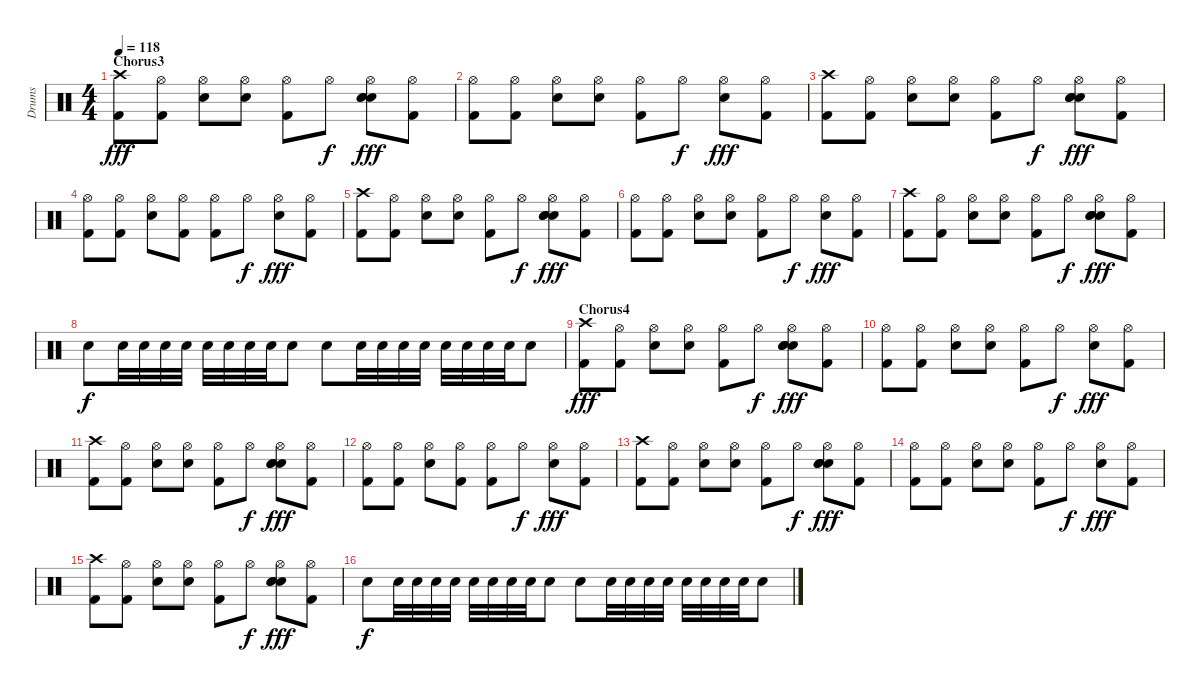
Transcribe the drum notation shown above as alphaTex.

\track ("Drums" "Drums") {instrument percussion}
\staff {score}
\articulation defaults
\ts (4 4)
\section ("" "Chorus3")
\tempo 118
\clef neutral
\ks c
("Crash high (hit)" "Kick (hit) 2").8{dy fff} ("Hi-Hat (open)" "Kick (hit) 2").8 ("Hi-Hat (open)" "Electric Snare (hit)").8 ("Hi-Hat (open)" "Electric Snare (hit)").8 ("Hi-Hat (open)" "Kick (hit) 2").8 "Hi-Hat (open)".8{dy f} ("Hi-Hat (open)" "Electric Snare (hit)" "Hand Clap (hit)" "Hand Clap (hit)").8{dy fff} ("Hi-Hat (open)" "Kick (hit) 2").8 |
("Hi-Hat (open)" "Kick (hit) 2").8 ("Hi-Hat (open)" "Kick (hit) 2").8 ("Hi-Hat (open)" "Electric Snare (hit)").8 ("Hi-Hat (open)" "Electric Snare (hit)").8 ("Hi-Hat (open)" "Kick (hit) 2").8 "Hi-Hat (open)".8{dy f} ("Hi-Hat (open)" "Electric Snare (hit)").8{dy fff} ("Hi-Hat (open)" "Kick (hit) 2").8 |
("Crash high (hit)" "Kick (hit) 2").8 ("Hi-Hat (open)" "Kick (hit) 2").8 ("Hi-Hat (open)" "Electric Snare (hit)").8 ("Hi-Hat (open)" "Electric Snare (hit)").8 ("Hi-Hat (open)" "Kick (hit) 2").8 "Hi-Hat (open)".8{dy f} ("Hi-Hat (open)" "Electric Snare (hit)" "Hand Clap (hit)" "Hand Clap (hit)").8{dy fff} ("Hi-Hat (open)" "Kick (hit) 2").8 |
("Hi-Hat (open)" "Kick (hit) 2").8 ("Hi-Hat (open)" "Kick (hit) 2").8 ("Hi-Hat (open)" "Electric Snare (hit)").8 ("Hi-Hat (open)" "Kick (hit) 2").8 ("Hi-Hat (open)" "Kick (hit) 2").8 "Hi-Hat (open)".8{dy f} ("Hi-Hat (open)" "Electric Snare (hit)").8{dy fff} ("Hi-Hat (open)" "Kick (hit) 2").8 |
("Crash high (hit)" "Kick (hit) 2").8 ("Hi-Hat (open)" "Kick (hit) 2").8 ("Hi-Hat (open)" "Electric Snare (hit)").8 ("Hi-Hat (open)" "Electric Snare (hit)").8 ("Hi-Hat (open)" "Kick (hit) 2").8 "Hi-Hat (open)".8{dy f} ("Hi-Hat (open)" "Electric Snare (hit)" "Hand Clap (hit)" "Hand Clap (hit)").8{dy fff} ("Hi-Hat (open)" "Kick (hit) 2").8 |
("Hi-Hat (open)" "Kick (hit) 2").8 ("Hi-Hat (open)" "Kick (hit) 2").8 ("Hi-Hat (open)" "Electric Snare (hit)").8 ("Hi-Hat (open)" "Electric Snare (hit)").8 ("Hi-Hat (open)" "Kick (hit) 2").8 "Hi-Hat (open)".8{dy f} ("Hi-Hat (open)" "Electric Snare (hit)").8{dy fff} ("Hi-Hat (open)" "Kick (hit) 2").8 |
("Crash high (hit)" "Kick (hit) 2").8 ("Hi-Hat (open)" "Kick (hit) 2").8 ("Hi-Hat (open)" "Electric Snare (hit)").8 ("Hi-Hat (open)" "Electric Snare (hit)").8 ("Hi-Hat (open)" "Kick (hit) 2").8 "Hi-Hat (open)".8{dy f} ("Hi-Hat (open)" "Electric Snare (hit)" "Hand Clap (hit)" "Hand Clap (hit)").8{dy fff} ("Hi-Hat (open)" "Kick (hit) 2").8 |
"Electric Snare (hit)".8{dy f} "Electric Snare (hit)".32 "Electric Snare (hit)".32 "Electric Snare (hit)".32 "Electric Snare (hit)".32 "Electric Snare (hit)".32 "Electric Snare (hit)".32 "Electric Snare (hit)".32 "Electric Snare (hit)".32 "Electric Snare (hit)".8 "Electric Snare (hit)".8 "Electric Snare (hit)".32 "Electric Snare (hit)".32 "Electric Snare (hit)".32 "Electric Snare (hit)".32 "Electric Snare (hit)".32 "Electric Snare (hit)".32 "Electric Snare (hit)".32 "Electric Snare (hit)".32 "Electric Snare (hit)".8 |
\section ("" "Chorus4")
("Crash high (hit)" "Kick (hit) 2").8{dy fff} ("Hi-Hat (open)" "Kick (hit) 2").8 ("Hi-Hat (open)" "Electric Snare (hit)").8 ("Hi-Hat (open)" "Electric Snare (hit)").8 ("Hi-Hat (open)" "Kick (hit) 2").8 "Hi-Hat (open)".8{dy f} ("Hi-Hat (open)" "Electric Snare (hit)" "Hand Clap (hit)" "Hand Clap (hit)").8{dy fff} ("Hi-Hat (open)" "Kick (hit) 2").8 |
("Hi-Hat (open)" "Kick (hit) 2").8 ("Hi-Hat (open)" "Kick (hit) 2").8 ("Hi-Hat (open)" "Electric Snare (hit)").8 ("Hi-Hat (open)" "Electric Snare (hit)").8 ("Hi-Hat (open)" "Kick (hit) 2").8 "Hi-Hat (open)".8{dy f} ("Hi-Hat (open)" "Electric Snare (hit)").8{dy fff} ("Hi-Hat (open)" "Kick (hit) 2").8 |
("Crash high (hit)" "Kick (hit) 2").8 ("Hi-Hat (open)" "Kick (hit) 2").8 ("Hi-Hat (open)" "Electric Snare (hit)").8 ("Hi-Hat (open)" "Electric Snare (hit)").8 ("Hi-Hat (open)" "Kick (hit) 2").8 "Hi-Hat (open)".8{dy f} ("Hi-Hat (open)" "Electric Snare (hit)" "Hand Clap (hit)" "Hand Clap (hit)").8{dy fff} ("Hi-Hat (open)" "Kick (hit) 2").8 |
("Hi-Hat (open)" "Kick (hit) 2").8 ("Hi-Hat (open)" "Kick (hit) 2").8 ("Hi-Hat (open)" "Electric Snare (hit)").8 ("Hi-Hat (open)" "Kick (hit) 2").8 ("Hi-Hat (open)" "Kick (hit) 2").8 "Hi-Hat (open)".8{dy f} ("Hi-Hat (open)" "Electric Snare (hit)").8{dy fff} ("Hi-Hat (open)" "Kick (hit) 2").8 |
("Crash high (hit)" "Kick (hit) 2").8 ("Hi-Hat (open)" "Kick (hit) 2").8 ("Hi-Hat (open)" "Electric Snare (hit)").8 ("Hi-Hat (open)" "Electric Snare (hit)").8 ("Hi-Hat (open)" "Kick (hit) 2").8 "Hi-Hat (open)".8{dy f} ("Hi-Hat (open)" "Electric Snare (hit)" "Hand Clap (hit)" "Hand Clap (hit)").8{dy fff} ("Hi-Hat (open)" "Kick (hit) 2").8 |
("Hi-Hat (open)" "Kick (hit) 2").8 ("Hi-Hat (open)" "Kick (hit) 2").8 ("Hi-Hat (open)" "Electric Snare (hit)").8 ("Hi-Hat (open)" "Electric Snare (hit)").8 ("Hi-Hat (open)" "Kick (hit) 2").8 "Hi-Hat (open)".8{dy f} ("Hi-Hat (open)" "Electric Snare (hit)").8{dy fff} ("Hi-Hat (open)" "Kick (hit) 2").8 |
("Crash high (hit)" "Kick (hit) 2").8 ("Hi-Hat (open)" "Kick (hit) 2").8 ("Hi-Hat (open)" "Electric Snare (hit)").8 ("Hi-Hat (open)" "Electric Snare (hit)").8 ("Hi-Hat (open)" "Kick (hit) 2").8 "Hi-Hat (open)".8{dy f} ("Hi-Hat (open)" "Electric Snare (hit)" "Hand Clap (hit)" "Hand Clap (hit)").8{dy fff} ("Hi-Hat (open)" "Kick (hit) 2").8 |
"Electric Snare (hit)".8{dy f} "Electric Snare (hit)".32 "Electric Snare (hit)".32 "Electric Snare (hit)".32 "Electric Snare (hit)".32 "Electric Snare (hit)".32 "Electric Snare (hit)".32 "Electric Snare (hit)".32 "Electric Snare (hit)".32 "Electric Snare (hit)".8 "Electric Snare (hit)".8 "Electric Snare (hit)".32 "Electric Snare (hit)".32 "Electric Snare (hit)".32 "Electric Snare (hit)".32 "Electric Snare (hit)".32 "Electric Snare (hit)".32 "Electric Snare (hit)".32 "Electric Snare (hit)".32 "Electric Snare (hit)".8
